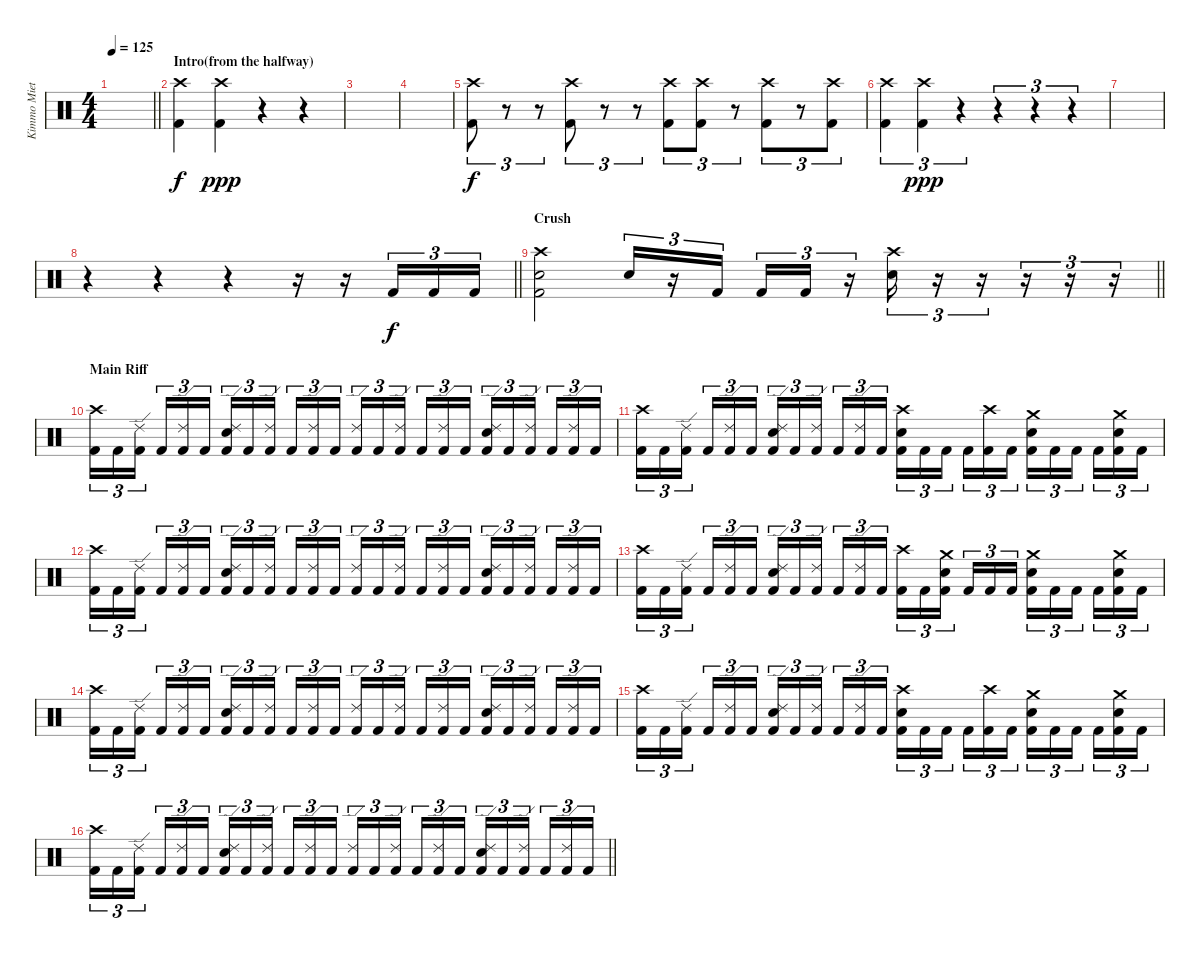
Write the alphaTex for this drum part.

\track ("Kimmo Miettinen" "Kimmo Miet") {instrument percussion}
\staff {score}
\articulation defaults
\ts (4 4)
\tempo 125
\clef neutral
\barLineRight lightlight
\ks c
|
\section ("" "Intro(from the halfway)")
("Crash high (hit)" "Kick (hit) 2").4 ("Crash high (hit)" "Kick (hit) 2").4{dy ppp} r.4 r.4 |
|
|
("Crash high (hit)" "Kick (hit) 2").8{tu (3 2) dy f} r.8{tu (3 2)} r.8{tu (3 2)} ("Crash high (hit)" "Kick (hit) 2").8{tu (3 2)} r.8{tu (3 2)} r.8{tu (3 2)} ("Crash high (hit)" "Kick (hit) 2").8{tu (3 2)} ("Crash high (hit)" "Kick (hit) 2").8{tu (3 2)} r.8{tu (3 2)} ("Crash high (hit)" "Kick (hit) 2").8{tu (3 2)} r.8{tu (3 2)} ("Crash high (hit)" "Kick (hit) 2").8{tu (3 2)} |
("Crash high (hit)" "Kick (hit) 2").4{tu (3 2)} ("Crash high (hit)" "Kick (hit) 2").4{tu (3 2) dy ppp} r.4{tu (3 2)} r.4{tu (3 2)} r.4{tu (3 2)} r.4{tu (3 2)} |
|
\barLineRight lightlight
r.4 r.4 r.4 r.16 r.16 "Kick (hit) 2".16{tu (3 2) dy f} "Kick (hit) 2".16{tu (3 2)} "Kick (hit) 2".16{tu (3 2)} |
\section ("" "Crush")
\barLineRight lightlight
("Crash high (hit)" "Electric Snare (hit)" "Kick (hit) 2").2 "Electric Snare (hit)".16{tu (3 2)} r.16{tu (3 2)} "Kick (hit) 2".16{tu (3 2) beam splitsecondary} "Kick (hit) 2".16{tu (3 2)} "Kick (hit) 2".16{tu (3 2)} r.16{tu (3 2)} ("Crash high (hit)" "Electric Snare (hit)").16{tu (3 2)} r.16{tu (3 2)} r.16{tu (3 2)} r.16{tu (3 2)} r.16{tu (3 2)} r.16{tu (3 2)} |
\section ("" "Main Riff")
("Crash high (hit)" "Kick (hit) 2").16{tu (3 2)} "Kick (hit) 2".16{tu (3 2)} ("Ride (edge) 2" "Kick (hit) 2").16{tu (3 2) beam splitsecondary} "Kick (hit) 2".16{tu (3 2)} ("Ride (edge) 2" "Kick (hit) 2").16{tu (3 2)} "Kick (hit) 2".16{tu (3 2)} ("Ride (edge) 2" "Electric Snare (hit)" "Kick (hit) 2").16{tu (3 2)} "Kick (hit) 2".16{tu (3 2)} ("Ride (edge) 2" "Kick (hit) 2").16{tu (3 2) beam splitsecondary} "Kick (hit) 2".16{tu (3 2)} ("Ride (edge) 2" "Kick (hit) 2").16{tu (3 2)} "Kick (hit) 2".16{tu (3 2)} ("Ride (edge) 2" "Kick (hit) 2").16{tu (3 2)} "Kick (hit) 2".16{tu (3 2)} ("Ride (edge) 2" "Kick (hit) 2").16{tu (3 2) beam splitsecondary} "Kick (hit) 2".16{tu (3 2)} ("Ride (edge) 2" "Kick (hit) 2").16{tu (3 2)} "Kick (hit) 2".16{tu (3 2)} ("Ride (edge) 2" "Electric Snare (hit)" "Kick (hit) 2").16{tu (3 2)} "Kick (hit) 2".16{tu (3 2)} ("Ride (edge) 2" "Kick (hit) 2").16{tu (3 2) beam splitsecondary} "Kick (hit) 2".16{tu (3 2)} ("Ride (edge) 2" "Kick (hit) 2").16{tu (3 2)} "Kick (hit) 2".16{tu (3 2)} |
("Crash high (hit)" "Kick (hit) 2").16{tu (3 2)} "Kick (hit) 2".16{tu (3 2)} ("Ride (edge) 2" "Kick (hit) 2").16{tu (3 2) beam splitsecondary} "Kick (hit) 2".16{tu (3 2)} ("Ride (edge) 2" "Kick (hit) 2").16{tu (3 2)} "Kick (hit) 2".16{tu (3 2)} ("Ride (edge) 2" "Electric Snare (hit)" "Kick (hit) 2").16{tu (3 2)} "Kick (hit) 2".16{tu (3 2)} ("Ride (edge) 2" "Kick (hit) 2").16{tu (3 2) beam splitsecondary} "Kick (hit) 2".16{tu (3 2)} ("Ride (edge) 2" "Kick (hit) 2").16{tu (3 2)} "Kick (hit) 2".16{tu (3 2)} ("Crash high (hit)" "Electric Snare (hit)" "Kick (hit) 2").16{tu (3 2)} "Kick (hit) 2".16{tu (3 2)} "Kick (hit) 2".16{tu (3 2) beam splitsecondary} "Kick (hit) 2".16{tu (3 2)} ("Crash high (hit)" "Kick (hit) 2").16{tu (3 2)} "Kick (hit) 2".16{tu (3 2)} ("Crash medium (hit)" "Electric Snare (hit)" "Kick (hit) 2").16{tu (3 2)} "Kick (hit) 2".16{tu (3 2)} "Kick (hit) 2".16{tu (3 2) beam splitsecondary} "Kick (hit) 2".16{tu (3 2)} ("Crash medium (hit)" "Electric Snare (hit)" "Kick (hit) 2").16{tu (3 2)} "Kick (hit) 2".16{tu (3 2)} |
("Crash high (hit)" "Kick (hit) 2").16{tu (3 2)} "Kick (hit) 2".16{tu (3 2)} ("Ride (edge) 2" "Kick (hit) 2").16{tu (3 2) beam splitsecondary} "Kick (hit) 2".16{tu (3 2)} ("Ride (edge) 2" "Kick (hit) 2").16{tu (3 2)} "Kick (hit) 2".16{tu (3 2)} ("Ride (edge) 2" "Electric Snare (hit)" "Kick (hit) 2").16{tu (3 2)} "Kick (hit) 2".16{tu (3 2)} ("Ride (edge) 2" "Kick (hit) 2").16{tu (3 2) beam splitsecondary} "Kick (hit) 2".16{tu (3 2)} ("Ride (edge) 2" "Kick (hit) 2").16{tu (3 2)} "Kick (hit) 2".16{tu (3 2)} ("Ride (edge) 2" "Kick (hit) 2").16{tu (3 2)} "Kick (hit) 2".16{tu (3 2)} ("Ride (edge) 2" "Kick (hit) 2").16{tu (3 2) beam splitsecondary} "Kick (hit) 2".16{tu (3 2)} ("Ride (edge) 2" "Kick (hit) 2").16{tu (3 2)} "Kick (hit) 2".16{tu (3 2)} ("Ride (edge) 2" "Electric Snare (hit)" "Kick (hit) 2").16{tu (3 2)} "Kick (hit) 2".16{tu (3 2)} ("Ride (edge) 2" "Kick (hit) 2").16{tu (3 2) beam splitsecondary} "Kick (hit) 2".16{tu (3 2)} ("Ride (edge) 2" "Kick (hit) 2").16{tu (3 2)} "Kick (hit) 2".16{tu (3 2)} |
("Crash high (hit)" "Kick (hit) 2").16{tu (3 2)} "Kick (hit) 2".16{tu (3 2)} ("Ride (edge) 2" "Kick (hit) 2").16{tu (3 2) beam splitsecondary} "Kick (hit) 2".16{tu (3 2)} ("Ride (edge) 2" "Kick (hit) 2").16{tu (3 2)} "Kick (hit) 2".16{tu (3 2)} ("Ride (edge) 2" "Electric Snare (hit)" "Kick (hit) 2").16{tu (3 2)} "Kick (hit) 2".16{tu (3 2)} ("Ride (edge) 2" "Kick (hit) 2").16{tu (3 2) beam splitsecondary} "Kick (hit) 2".16{tu (3 2)} ("Ride (edge) 2" "Kick (hit) 2").16{tu (3 2)} "Kick (hit) 2".16{tu (3 2)} ("Crash high (hit)" "Kick (hit) 2").16{tu (3 2)} "Kick (hit) 2".16{tu (3 2)} ("Crash medium (hit)" "Electric Snare (hit)" "Kick (hit) 2").16{tu (3 2) beam splitsecondary} "Kick (hit) 2".16{tu (3 2)} "Kick (hit) 2".16{tu (3 2)} "Kick (hit) 2".16{tu (3 2)} ("Crash medium (hit)" "Electric Snare (hit)" "Kick (hit) 2").16{tu (3 2)} "Kick (hit) 2".16{tu (3 2)} "Kick (hit) 2".16{tu (3 2) beam splitsecondary} "Kick (hit) 2".16{tu (3 2)} ("Crash medium (hit)" "Electric Snare (hit)" "Kick (hit) 2").16{tu (3 2)} "Kick (hit) 2".16{tu (3 2)} |
("Crash high (hit)" "Kick (hit) 2").16{tu (3 2)} "Kick (hit) 2".16{tu (3 2)} ("Ride (edge) 2" "Kick (hit) 2").16{tu (3 2) beam splitsecondary} "Kick (hit) 2".16{tu (3 2)} ("Ride (edge) 2" "Kick (hit) 2").16{tu (3 2)} "Kick (hit) 2".16{tu (3 2)} ("Ride (edge) 2" "Electric Snare (hit)" "Kick (hit) 2").16{tu (3 2)} "Kick (hit) 2".16{tu (3 2)} ("Ride (edge) 2" "Kick (hit) 2").16{tu (3 2) beam splitsecondary} "Kick (hit) 2".16{tu (3 2)} ("Ride (edge) 2" "Kick (hit) 2").16{tu (3 2)} "Kick (hit) 2".16{tu (3 2)} ("Ride (edge) 2" "Kick (hit) 2").16{tu (3 2)} "Kick (hit) 2".16{tu (3 2)} ("Ride (edge) 2" "Kick (hit) 2").16{tu (3 2) beam splitsecondary} "Kick (hit) 2".16{tu (3 2)} ("Ride (edge) 2" "Kick (hit) 2").16{tu (3 2)} "Kick (hit) 2".16{tu (3 2)} ("Ride (edge) 2" "Electric Snare (hit)" "Kick (hit) 2").16{tu (3 2)} "Kick (hit) 2".16{tu (3 2)} ("Ride (edge) 2" "Kick (hit) 2").16{tu (3 2) beam splitsecondary} "Kick (hit) 2".16{tu (3 2)} ("Ride (edge) 2" "Kick (hit) 2").16{tu (3 2)} "Kick (hit) 2".16{tu (3 2)} |
("Crash high (hit)" "Kick (hit) 2").16{tu (3 2)} "Kick (hit) 2".16{tu (3 2)} ("Ride (edge) 2" "Kick (hit) 2").16{tu (3 2) beam splitsecondary} "Kick (hit) 2".16{tu (3 2)} ("Ride (edge) 2" "Kick (hit) 2").16{tu (3 2)} "Kick (hit) 2".16{tu (3 2)} ("Ride (edge) 2" "Electric Snare (hit)" "Kick (hit) 2").16{tu (3 2)} "Kick (hit) 2".16{tu (3 2)} ("Ride (edge) 2" "Kick (hit) 2").16{tu (3 2) beam splitsecondary} "Kick (hit) 2".16{tu (3 2)} ("Ride (edge) 2" "Kick (hit) 2").16{tu (3 2)} "Kick (hit) 2".16{tu (3 2)} ("Crash high (hit)" "Electric Snare (hit)" "Kick (hit) 2").16{tu (3 2)} "Kick (hit) 2".16{tu (3 2)} "Kick (hit) 2".16{tu (3 2) beam splitsecondary} "Kick (hit) 2".16{tu (3 2)} ("Crash high (hit)" "Kick (hit) 2").16{tu (3 2)} "Kick (hit) 2".16{tu (3 2)} ("Crash medium (hit)" "Electric Snare (hit)" "Kick (hit) 2").16{tu (3 2)} "Kick (hit) 2".16{tu (3 2)} "Kick (hit) 2".16{tu (3 2) beam splitsecondary} "Kick (hit) 2".16{tu (3 2)} ("Crash medium (hit)" "Electric Snare (hit)" "Kick (hit) 2").16{tu (3 2)} "Kick (hit) 2".16{tu (3 2)} |
\barLineRight lightlight
("Crash high (hit)" "Kick (hit) 2").16{tu (3 2)} "Kick (hit) 2".16{tu (3 2)} ("Ride (edge) 2" "Kick (hit) 2").16{tu (3 2) beam splitsecondary} "Kick (hit) 2".16{tu (3 2)} ("Ride (edge) 2" "Kick (hit) 2").16{tu (3 2)} "Kick (hit) 2".16{tu (3 2)} ("Ride (edge) 2" "Electric Snare (hit)" "Kick (hit) 2").16{tu (3 2)} "Kick (hit) 2".16{tu (3 2)} ("Ride (edge) 2" "Kick (hit) 2").16{tu (3 2) beam splitsecondary} "Kick (hit) 2".16{tu (3 2)} ("Ride (edge) 2" "Kick (hit) 2").16{tu (3 2)} "Kick (hit) 2".16{tu (3 2)} ("Ride (edge) 2" "Kick (hit) 2").16{tu (3 2)} "Kick (hit) 2".16{tu (3 2)} ("Ride (edge) 2" "Kick (hit) 2").16{tu (3 2) beam splitsecondary} "Kick (hit) 2".16{tu (3 2)} ("Ride (edge) 2" "Kick (hit) 2").16{tu (3 2)} "Kick (hit) 2".16{tu (3 2)} ("Ride (edge) 2" "Electric Snare (hit)" "Kick (hit) 2").16{tu (3 2)} "Kick (hit) 2".16{tu (3 2)} ("Ride (edge) 2" "Kick (hit) 2").16{tu (3 2) beam splitsecondary} "Kick (hit) 2".16{tu (3 2)} ("Ride (edge) 2" "Kick (hit) 2").16{tu (3 2)} "Kick (hit) 2".16{tu (3 2)}
